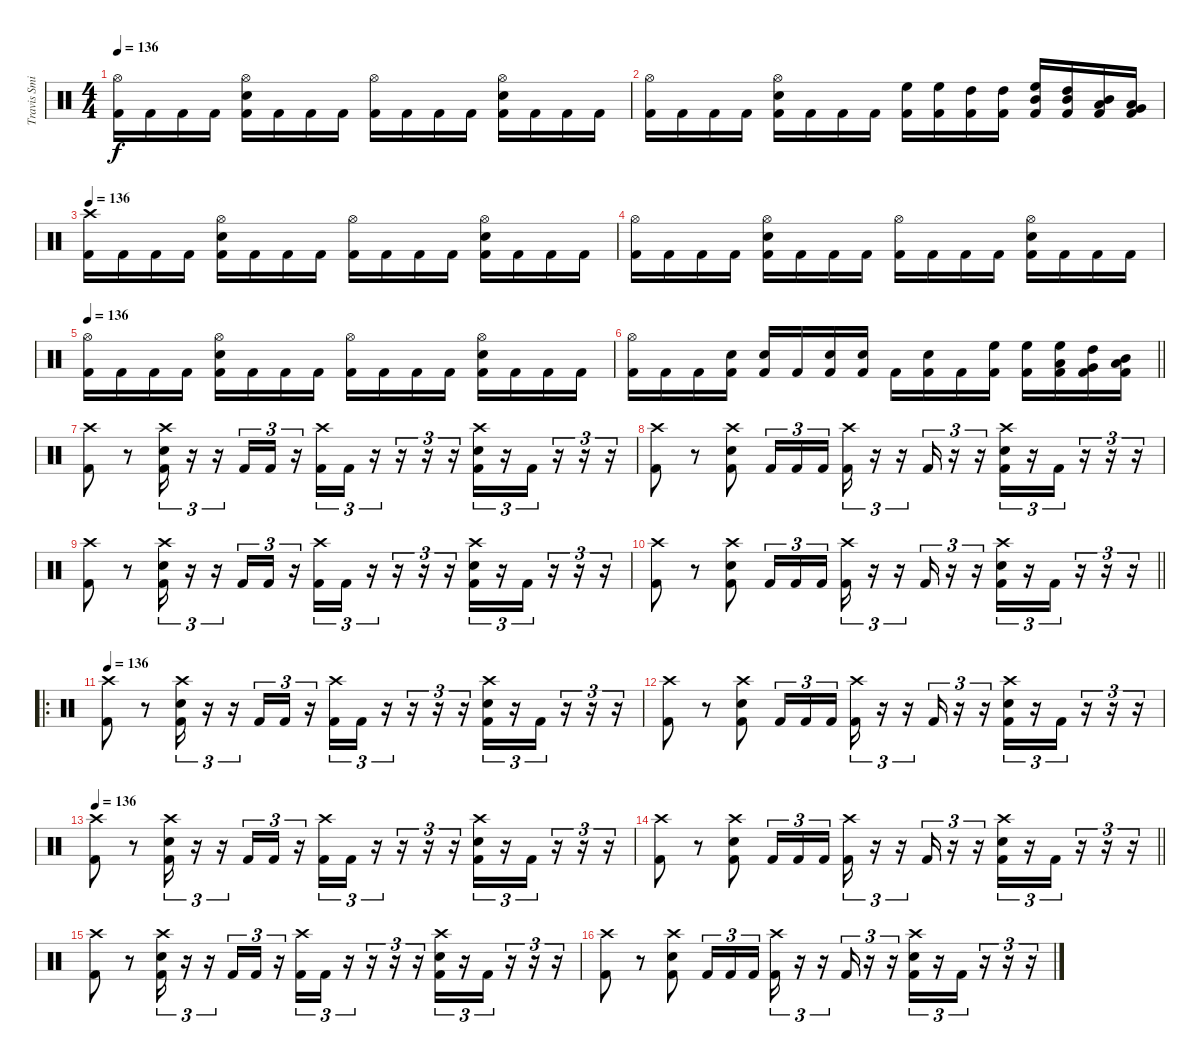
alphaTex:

\track ("Travis Smith" "Travis Smi") {instrument percussion}
\staff {score}
\articulation defaults
\ts (4 4)
\tempo 136
\clef neutral
\ks c
("Hi-Hat (open)" "Kick (hit) 2").16{dy f} "Kick (hit) 2".16 "Kick (hit) 2".16 "Kick (hit) 2".16 ("Hi-Hat (open)" "Snare (hit) 2" "Kick (hit) 2").16 "Kick (hit) 2".16 "Kick (hit) 2".16 "Kick (hit) 2".16 ("Hi-Hat (open)" "Kick (hit) 2").16 "Kick (hit) 2".16 "Kick (hit) 2".16 "Kick (hit) 2".16 ("Hi-Hat (open)" "Snare (hit) 2" "Kick (hit) 2").16 "Kick (hit) 2".16 "Kick (hit) 2".16 "Kick (hit) 2".16 |
("Hi-Hat (open)" "Kick (hit) 2").16 "Kick (hit) 2".16 "Kick (hit) 2".16 "Kick (hit) 2".16 ("Hi-Hat (open)" "Snare (hit) 2" "Kick (hit) 2").16 "Kick (hit) 2".16 "Kick (hit) 2".16 "Kick (hit) 2".16 ("High Floor Tom (hit)" "Kick (hit) 2").16 ("High Floor Tom (hit)" "Kick (hit) 2").16 ("High Tom (hit)" "Kick (hit) 2").16 ("High Tom (hit)" "Kick (hit) 2").16 ("Mid Tom (hit)" "High Floor Tom (hit)" "Kick (hit) 2").16 ("Mid Tom (hit)" "High Tom (hit)" "Kick (hit) 2").16 ("Low Tom (hit)" "Mid Tom (hit)" "Kick (hit) 2").16 ("Very Low Tom (hit)" "Low Tom (hit)" "Kick (hit) 2").16 |
\tempo 136
("Crash high (hit)" "Kick (hit) 2").16 "Kick (hit) 2".16 "Kick (hit) 2".16 "Kick (hit) 2".16 ("Hi-Hat (open)" "Snare (hit) 2" "Kick (hit) 2").16 "Kick (hit) 2".16 "Kick (hit) 2".16 "Kick (hit) 2".16 ("Hi-Hat (open)" "Kick (hit) 2").16 "Kick (hit) 2".16 "Kick (hit) 2".16 "Kick (hit) 2".16 ("Hi-Hat (open)" "Snare (hit) 2" "Kick (hit) 2").16 "Kick (hit) 2".16 "Kick (hit) 2".16 "Kick (hit) 2".16 |
("Hi-Hat (open)" "Kick (hit) 2").16 "Kick (hit) 2".16 "Kick (hit) 2".16 "Kick (hit) 2".16 ("Hi-Hat (open)" "Snare (hit) 2" "Kick (hit) 2").16 "Kick (hit) 2".16 "Kick (hit) 2".16 "Kick (hit) 2".16 ("Hi-Hat (open)" "Kick (hit) 2").16 "Kick (hit) 2".16 "Kick (hit) 2".16 "Kick (hit) 2".16 ("Hi-Hat (open)" "Snare (hit) 2" "Kick (hit) 2").16 "Kick (hit) 2".16 "Kick (hit) 2".16 "Kick (hit) 2".16 |
\tempo 136
("Hi-Hat (open)" "Kick (hit) 2").16 "Kick (hit) 2".16 "Kick (hit) 2".16 "Kick (hit) 2".16 ("Hi-Hat (open)" "Snare (hit) 2" "Kick (hit) 2").16 "Kick (hit) 2".16 "Kick (hit) 2".16 "Kick (hit) 2".16 ("Hi-Hat (open)" "Kick (hit) 2").16 "Kick (hit) 2".16 "Kick (hit) 2".16 "Kick (hit) 2".16 ("Hi-Hat (open)" "Snare (hit) 2" "Kick (hit) 2").16 "Kick (hit) 2".16 "Kick (hit) 2".16 "Kick (hit) 2".16 |
\barLineRight lightlight
("Hi-Hat (open)" "Kick (hit) 2").16 "Kick (hit) 2".16 "Kick (hit) 2".16 ("Snare (hit) 2" "Kick (hit) 2").16 ("Snare (hit) 2" "Kick (hit) 2").16 "Kick (hit) 2".16 ("Snare (hit) 2" "Kick (hit) 2").16 ("Snare (hit) 2" "Kick (hit) 2").16 "Kick (hit) 2".16 ("Snare (hit) 2" "Kick (hit) 2").16 "Kick (hit) 2".16 ("High Floor Tom (hit)" "Kick (hit) 2").16 ("High Floor Tom (hit)" "Kick (hit) 2").16 ("Low Tom (hit)" "High Floor Tom (hit)" "Kick (hit) 2").16 ("Very Low Tom (hit)" "High Tom (hit)" "Kick (hit) 2").16 ("Low Floor Tom (hit)" "Mid Tom (hit)" "Kick (hit) 2").16 |
("Crash high (hit)" "Kick (hit) 2").8 r.8 ("Crash high (hit)" "Snare (hit) 2" "Kick (hit) 2").16{tu (3 2)} r.16{tu (3 2)} r.16{tu (3 2)} "Kick (hit) 2".16{tu (3 2)} "Kick (hit) 2".16{tu (3 2)} r.16{tu (3 2)} ("Crash high (hit)" "Kick (hit) 2").16{tu (3 2)} "Kick (hit) 2".16{tu (3 2)} r.16{tu (3 2)} r.16{tu (3 2)} r.16{tu (3 2)} r.16{tu (3 2)} ("Crash high (hit)" "Snare (hit) 2" "Kick (hit) 2").16{tu (3 2)} r.16{tu (3 2)} "Kick (hit) 2".16{tu (3 2)} r.16{tu (3 2)} r.16{tu (3 2)} r.16{tu (3 2)} |
("Crash high (hit)" "Kick (hit) 2").8 r.8 ("Crash high (hit)" "Snare (hit) 2" "Kick (hit) 2").8 "Kick (hit) 2".16{tu (3 2)} "Kick (hit) 2".16{tu (3 2)} "Kick (hit) 2".16{tu (3 2)} ("Crash high (hit)" "Kick (hit) 2").16{tu (3 2)} r.16{tu (3 2)} r.16{tu (3 2)} "Kick (hit) 2".16{tu (3 2)} r.16{tu (3 2)} r.16{tu (3 2)} ("Crash high (hit)" "Snare (hit) 2" "Kick (hit) 2").16{tu (3 2)} r.16{tu (3 2)} "Kick (hit) 2".16{tu (3 2)} r.16{tu (3 2)} r.16{tu (3 2)} r.16{tu (3 2)} |
("Crash high (hit)" "Kick (hit) 2").8 r.8 ("Crash high (hit)" "Snare (hit) 2" "Kick (hit) 2").16{tu (3 2)} r.16{tu (3 2)} r.16{tu (3 2)} "Kick (hit) 2".16{tu (3 2)} "Kick (hit) 2".16{tu (3 2)} r.16{tu (3 2)} ("Crash high (hit)" "Kick (hit) 2").16{tu (3 2)} "Kick (hit) 2".16{tu (3 2)} r.16{tu (3 2)} r.16{tu (3 2)} r.16{tu (3 2)} r.16{tu (3 2)} ("Crash high (hit)" "Snare (hit) 2" "Kick (hit) 2").16{tu (3 2)} r.16{tu (3 2)} "Kick (hit) 2".16{tu (3 2)} r.16{tu (3 2)} r.16{tu (3 2)} r.16{tu (3 2)} |
\barLineRight lightlight
("Crash high (hit)" "Kick (hit) 2").8 r.8 ("Crash high (hit)" "Snare (hit) 2" "Kick (hit) 2").8 "Kick (hit) 2".16{tu (3 2)} "Kick (hit) 2".16{tu (3 2)} "Kick (hit) 2".16{tu (3 2)} ("Crash high (hit)" "Kick (hit) 2").16{tu (3 2)} r.16{tu (3 2)} r.16{tu (3 2)} "Kick (hit) 2".16{tu (3 2)} r.16{tu (3 2)} r.16{tu (3 2)} ("Crash high (hit)" "Snare (hit) 2" "Kick (hit) 2").16{tu (3 2)} r.16{tu (3 2)} "Kick (hit) 2".16{tu (3 2)} r.16{tu (3 2)} r.16{tu (3 2)} r.16{tu (3 2)} |
\ro
\tempo 136
("Crash high (hit)" "Kick (hit) 2").8 r.8 ("Crash high (hit)" "Snare (hit) 2" "Kick (hit) 2").16{tu (3 2)} r.16{tu (3 2)} r.16{tu (3 2)} "Kick (hit) 2".16{tu (3 2)} "Kick (hit) 2".16{tu (3 2)} r.16{tu (3 2)} ("Crash high (hit)" "Kick (hit) 2").16{tu (3 2)} "Kick (hit) 2".16{tu (3 2)} r.16{tu (3 2)} r.16{tu (3 2)} r.16{tu (3 2)} r.16{tu (3 2)} ("Crash high (hit)" "Snare (hit) 2" "Kick (hit) 2").16{tu (3 2)} r.16{tu (3 2)} "Kick (hit) 2".16{tu (3 2)} r.16{tu (3 2)} r.16{tu (3 2)} r.16{tu (3 2)} |
("Crash high (hit)" "Kick (hit) 2").8 r.8 ("Crash high (hit)" "Snare (hit) 2" "Kick (hit) 2").8 "Kick (hit) 2".16{tu (3 2)} "Kick (hit) 2".16{tu (3 2)} "Kick (hit) 2".16{tu (3 2)} ("Crash high (hit)" "Kick (hit) 2").16{tu (3 2)} r.16{tu (3 2)} r.16{tu (3 2)} "Kick (hit) 2".16{tu (3 2)} r.16{tu (3 2)} r.16{tu (3 2)} ("Crash high (hit)" "Snare (hit) 2" "Kick (hit) 2").16{tu (3 2)} r.16{tu (3 2)} "Kick (hit) 2".16{tu (3 2)} r.16{tu (3 2)} r.16{tu (3 2)} r.16{tu (3 2)} |
\tempo 136
("Crash high (hit)" "Kick (hit) 2").8 r.8 ("Crash high (hit)" "Snare (hit) 2" "Kick (hit) 2").16{tu (3 2)} r.16{tu (3 2)} r.16{tu (3 2)} "Kick (hit) 2".16{tu (3 2)} "Kick (hit) 2".16{tu (3 2)} r.16{tu (3 2)} ("Crash high (hit)" "Kick (hit) 2").16{tu (3 2)} "Kick (hit) 2".16{tu (3 2)} r.16{tu (3 2)} r.16{tu (3 2)} r.16{tu (3 2)} r.16{tu (3 2)} ("Crash high (hit)" "Snare (hit) 2" "Kick (hit) 2").16{tu (3 2)} r.16{tu (3 2)} "Kick (hit) 2".16{tu (3 2)} r.16{tu (3 2)} r.16{tu (3 2)} r.16{tu (3 2)} |
\barLineRight lightlight
("Crash high (hit)" "Kick (hit) 2").8 r.8 ("Crash high (hit)" "Snare (hit) 2" "Kick (hit) 2").8 "Kick (hit) 2".16{tu (3 2)} "Kick (hit) 2".16{tu (3 2)} "Kick (hit) 2".16{tu (3 2)} ("Crash high (hit)" "Kick (hit) 2").16{tu (3 2)} r.16{tu (3 2)} r.16{tu (3 2)} "Kick (hit) 2".16{tu (3 2)} r.16{tu (3 2)} r.16{tu (3 2)} ("Crash high (hit)" "Snare (hit) 2" "Kick (hit) 2").16{tu (3 2)} r.16{tu (3 2)} "Kick (hit) 2".16{tu (3 2)} r.16{tu (3 2)} r.16{tu (3 2)} r.16{tu (3 2)} |
("Crash high (hit)" "Kick (hit) 2").8 r.8 ("Crash high (hit)" "Snare (hit) 2" "Kick (hit) 2").16{tu (3 2)} r.16{tu (3 2)} r.16{tu (3 2)} "Kick (hit) 2".16{tu (3 2)} "Kick (hit) 2".16{tu (3 2)} r.16{tu (3 2)} ("Crash high (hit)" "Kick (hit) 2").16{tu (3 2)} "Kick (hit) 2".16{tu (3 2)} r.16{tu (3 2)} r.16{tu (3 2)} r.16{tu (3 2)} r.16{tu (3 2)} ("Crash high (hit)" "Snare (hit) 2" "Kick (hit) 2").16{tu (3 2)} r.16{tu (3 2)} "Kick (hit) 2".16{tu (3 2)} r.16{tu (3 2)} r.16{tu (3 2)} r.16{tu (3 2)} |
("Crash high (hit)" "Kick (hit) 2").8 r.8 ("Crash high (hit)" "Snare (hit) 2" "Kick (hit) 2").8 "Kick (hit) 2".16{tu (3 2)} "Kick (hit) 2".16{tu (3 2)} "Kick (hit) 2".16{tu (3 2)} ("Crash high (hit)" "Kick (hit) 2").16{tu (3 2)} r.16{tu (3 2)} r.16{tu (3 2)} "Kick (hit) 2".16{tu (3 2)} r.16{tu (3 2)} r.16{tu (3 2)} ("Crash high (hit)" "Snare (hit) 2" "Kick (hit) 2").16{tu (3 2)} r.16{tu (3 2)} "Kick (hit) 2".16{tu (3 2)} r.16{tu (3 2)} r.16{tu (3 2)} r.16{tu (3 2)}
